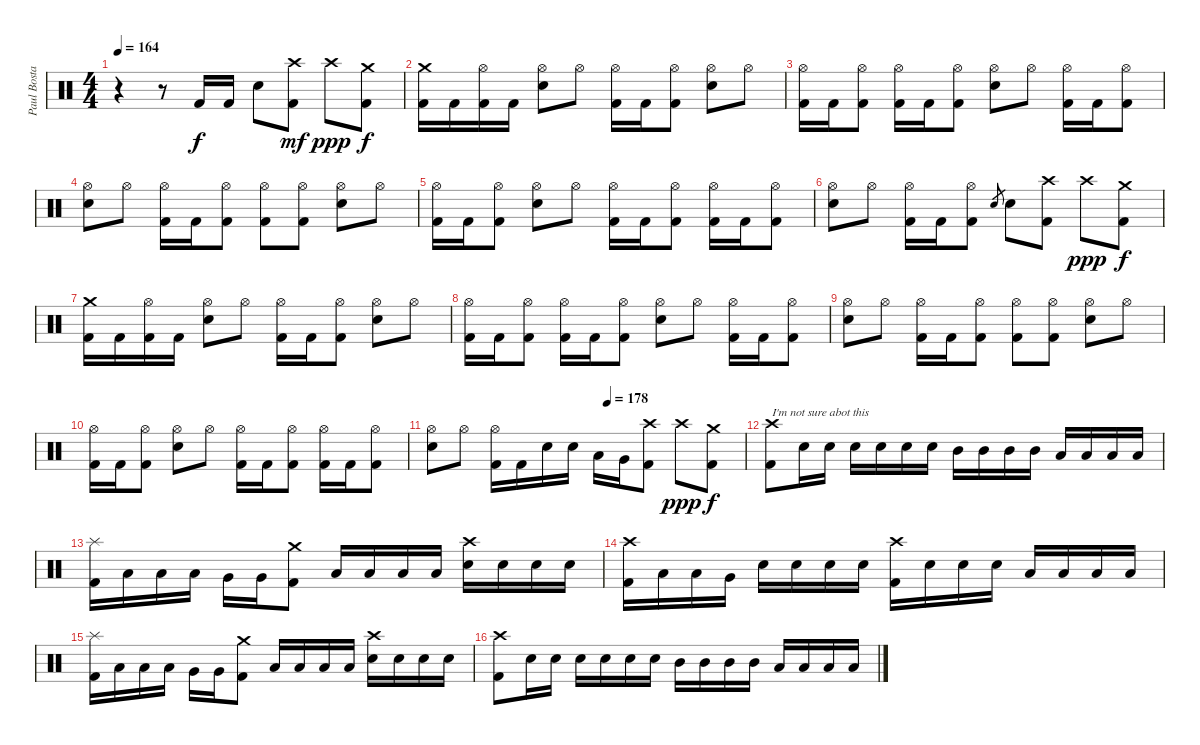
\track ("Paul Bostaph" "Paul Bosta") {instrument percussion}
\staff {score}
\articulation defaults
\ts (4 4)
\tempo 164
\clef neutral
\ks c
r.4{dy f} r.8 "Kick (hit) 2".16 "Kick (hit) 2".16 "Electric Snare (hit)".8 ("Kick (hit) 2" "Crash high (hit)").8{dy mf} "Crash high (hit)".8{dy ppp} ("Crash medium (hit)" "Kick (hit) 2").8{dy f} |
("Kick (hit) 2" "Crash medium (hit)").16 "Kick (hit) 2".16 ("Kick (hit) 2" "Hi-Hat (open)").16 "Kick (hit) 2".16 ("Electric Snare (hit)" "Hi-Hat (open)").8 "Hi-Hat (open)".8 ("Kick (hit) 2" "Hi-Hat (open)").16 "Kick (hit) 2".16 ("Kick (hit) 2" "Hi-Hat (open)").8 ("Electric Snare (hit)" "Hi-Hat (open)").8 "Hi-Hat (open)".8 |
("Kick (hit) 2" "Hi-Hat (open)").16 "Kick (hit) 2".16 ("Kick (hit) 2" "Hi-Hat (open)").8 ("Kick (hit) 2" "Hi-Hat (open)").16 "Kick (hit) 2".16 ("Kick (hit) 2" "Hi-Hat (open)").8 ("Electric Snare (hit)" "Hi-Hat (open)").8 "Hi-Hat (open)".8 ("Kick (hit) 2" "Hi-Hat (open)").16 "Kick (hit) 2".16 ("Kick (hit) 2" "Hi-Hat (open)").8 |
("Electric Snare (hit)" "Hi-Hat (open)").8 "Hi-Hat (open)".8 ("Kick (hit) 2" "Hi-Hat (open)").16 "Kick (hit) 2".16 ("Kick (hit) 2" "Hi-Hat (open)").8 ("Kick (hit) 2" "Hi-Hat (open)").8 ("Kick (hit) 2" "Hi-Hat (open)").8 ("Electric Snare (hit)" "Hi-Hat (open)").8 "Hi-Hat (open)".8 |
("Hi-Hat (open)" "Kick (hit) 2").16 "Kick (hit) 2".16 ("Hi-Hat (open)" "Kick (hit) 2").8 ("Hi-Hat (open)" "Electric Snare (hit)").8 "Hi-Hat (open)".8 ("Hi-Hat (open)" "Kick (hit) 2").16 "Kick (hit) 2".16 ("Hi-Hat (open)" "Kick (hit) 2").8 ("Hi-Hat (open)" "Kick (hit) 2").16 "Kick (hit) 2".16 ("Hi-Hat (open)" "Kick (hit) 2").8 |
("Electric Snare (hit)" "Hi-Hat (open)").8 "Hi-Hat (open)".8 ("Kick (hit) 2" "Hi-Hat (open)").16 "Kick (hit) 2".16 ("Kick (hit) 2" "Hi-Hat (open)").8 "Electric Snare (hit)".8{gr} "Electric Snare (hit)".8 ("Crash high (hit)" "Kick (hit) 2").8 "Crash high (hit)".8{dy ppp} ("Crash medium (hit)" "Kick (hit) 2").8{dy f} |
("Kick (hit) 2" "Crash medium (hit)").16 "Kick (hit) 2".16 ("Kick (hit) 2" "Hi-Hat (open)").16 "Kick (hit) 2".16 ("Electric Snare (hit)" "Hi-Hat (open)").8 "Hi-Hat (open)".8 ("Kick (hit) 2" "Hi-Hat (open)").16 "Kick (hit) 2".16 ("Kick (hit) 2" "Hi-Hat (open)").8 ("Electric Snare (hit)" "Hi-Hat (open)").8 "Hi-Hat (open)".8 |
("Kick (hit) 2" "Hi-Hat (open)").16 "Kick (hit) 2".16 ("Kick (hit) 2" "Hi-Hat (open)").8 ("Kick (hit) 2" "Hi-Hat (open)").16 "Kick (hit) 2".16 ("Kick (hit) 2" "Hi-Hat (open)").8 ("Electric Snare (hit)" "Hi-Hat (open)").8 "Hi-Hat (open)".8 ("Kick (hit) 2" "Hi-Hat (open)").16 "Kick (hit) 2".16 ("Kick (hit) 2" "Hi-Hat (open)").8 |
("Electric Snare (hit)" "Hi-Hat (open)").8 "Hi-Hat (open)".8 ("Kick (hit) 2" "Hi-Hat (open)").16 "Kick (hit) 2".16 ("Kick (hit) 2" "Hi-Hat (open)").8 ("Kick (hit) 2" "Hi-Hat (open)").8 ("Kick (hit) 2" "Hi-Hat (open)").8 ("Electric Snare (hit)" "Hi-Hat (open)").8 "Hi-Hat (open)".8 |
("Hi-Hat (open)" "Kick (hit) 2").16 "Kick (hit) 2".16 ("Hi-Hat (open)" "Kick (hit) 2").8 ("Hi-Hat (open)" "Electric Snare (hit)").8 "Hi-Hat (open)".8 ("Hi-Hat (open)" "Kick (hit) 2").16 "Kick (hit) 2".16 ("Hi-Hat (open)" "Kick (hit) 2").8 ("Hi-Hat (open)" "Kick (hit) 2").16 "Kick (hit) 2".16 ("Hi-Hat (open)" "Kick (hit) 2").8 |
\tempo (178 0.5625)
("Electric Snare (hit)" "Hi-Hat (open)").8 "Hi-Hat (open)".8 ("Kick (hit) 2" "Hi-Hat (open)").16 "Kick (hit) 2".16 "Electric Snare (hit)".16 "Electric Snare (hit)".16 "Low Tom (hit)".16 "Very Low Tom (hit)".16 ("Crash high (hit)" "Kick (hit) 2").8 "Crash high (hit)".8{dy ppp} ("Crash medium (hit)" "Kick (hit) 2").8{dy f} |
("Crash high (hit)" "Kick (hit) 2").8{txt "I'm not sure abot this"} "Electric Snare (hit)".16 "Electric Snare (hit)".16 "Electric Snare (hit)".16 "Electric Snare (hit)".16 "Electric Snare (hit)".16 "Electric Snare (hit)".16 "Mid Tom (hit)".16 "Mid Tom (hit)".16 "Mid Tom (hit)".16 "Mid Tom (hit)".16 "Low Tom (hit)".16 "Low Tom (hit)".16 "Low Tom (hit)".16 "Low Tom (hit)".16 |
("Splash (hit)" "Kick (hit) 2").16 "Low Tom (hit)".16 "Low Tom (hit)".16 "Low Tom (hit)".16 "Very Low Tom (hit)".16 "Very Low Tom (hit)".16 ("Crash medium (hit)" "Kick (hit) 2").8 "Low Tom (hit)".16 "Low Tom (hit)".16 "Low Tom (hit)".16 "Low Tom (hit)".16 ("Crash high (hit)" "Electric Snare (hit)").16 "Electric Snare (hit)".16 "Electric Snare (hit)".16 "Electric Snare (hit)".16 |
("Crash high (hit)" "Kick (hit) 2").16 "Low Tom (hit)".16 "Low Tom (hit)".16 "Very Low Tom (hit)".16 "Electric Snare (hit)".16 "Electric Snare (hit)".16 "Electric Snare (hit)".16 "Electric Snare (hit)".16 ("Crash high (hit)" "Kick (hit) 2").16 "Electric Snare (hit)".16 "Electric Snare (hit)".16 "Electric Snare (hit)".16 "Low Tom (hit)".16 "Low Tom (hit)".16 "Low Tom (hit)".16 "Low Tom (hit)".16 |
("Splash (hit)" "Kick (hit) 2").16 "Low Tom (hit)".16 "Low Tom (hit)".16 "Low Tom (hit)".16 "Very Low Tom (hit)".16 "Very Low Tom (hit)".16 ("Crash medium (hit)" "Kick (hit) 2").8 "Low Tom (hit)".16 "Low Tom (hit)".16 "Low Tom (hit)".16 "Low Tom (hit)".16 ("Crash high (hit)" "Electric Snare (hit)").16 "Electric Snare (hit)".16 "Electric Snare (hit)".16 "Electric Snare (hit)".16 |
("Crash high (hit)" "Kick (hit) 2").8 "Electric Snare (hit)".16 "Electric Snare (hit)".16 "Electric Snare (hit)".16 "Electric Snare (hit)".16 "Electric Snare (hit)".16 "Electric Snare (hit)".16 "Mid Tom (hit)".16 "Mid Tom (hit)".16 "Mid Tom (hit)".16 "Mid Tom (hit)".16 "Low Tom (hit)".16 "Low Tom (hit)".16 "Low Tom (hit)".16 "Low Tom (hit)".16
